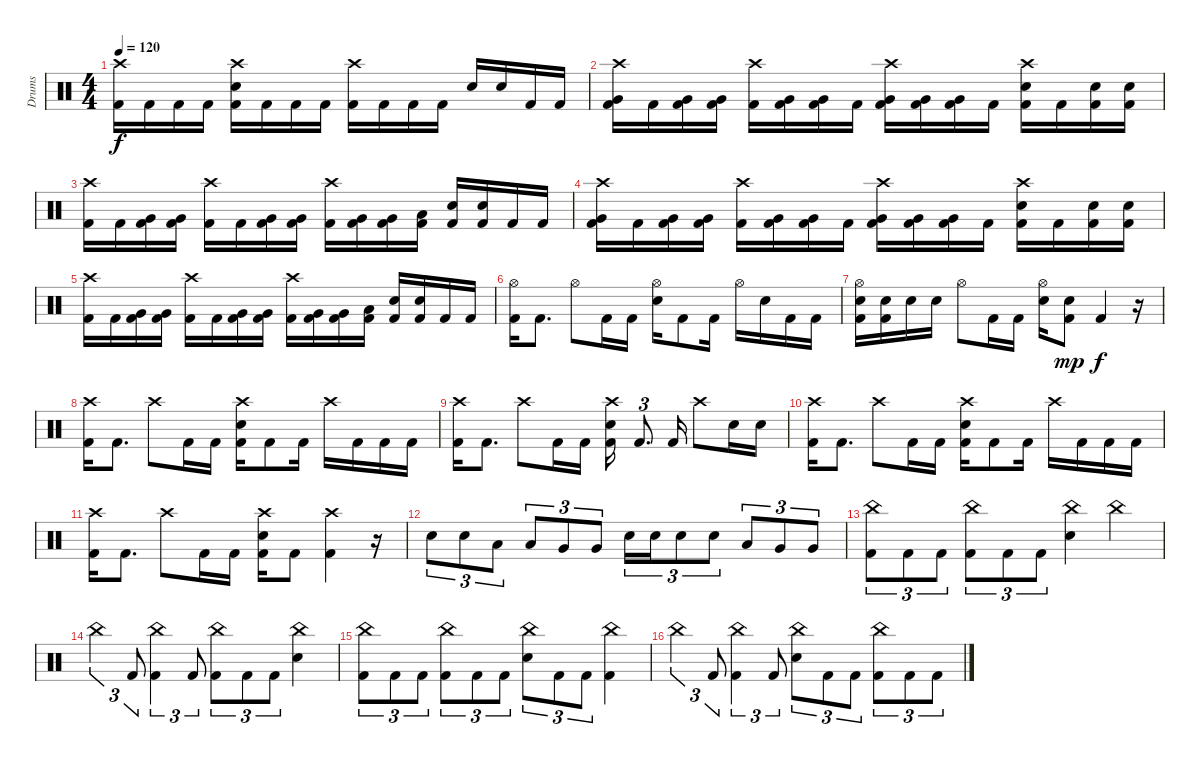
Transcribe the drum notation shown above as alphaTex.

\track ("Drums" "Drums") {instrument percussion}
\staff {score}
\articulation defaults
\ts (4 4)
\tempo 120
\clef neutral
\ks c
("Crash high (hit)" "Kick (hit) 2").16{dy f} "Kick (hit) 2".16 "Kick (hit) 2".16 "Kick (hit) 2".16 ("Crash high (hit)" "Electric Snare (hit)" "Kick (hit) 2").16 "Kick (hit) 2".16 "Kick (hit) 2".16 "Kick (hit) 2".16 ("Crash high (hit)" "Kick (hit) 2").16 "Kick (hit) 2".16 "Kick (hit) 2".16 "Kick (hit) 2".16 "Electric Snare (hit)".16 "Electric Snare (hit)".16 "Kick (hit) 2".16 "Kick (hit) 2".16 |
("Crash high (hit)" "Very Low Tom (hit)" "Kick (hit) 2").16 "Kick (hit) 2".16 ("Very Low Tom (hit)" "Kick (hit) 2").16 ("Very Low Tom (hit)" "Kick (hit) 2").16 ("Crash high (hit)" "Kick (hit) 2").16 ("Very Low Tom (hit)" "Kick (hit) 2").16 ("Very Low Tom (hit)" "Kick (hit) 2").16 "Kick (hit) 2".16 ("Crash high (hit)" "Very Low Tom (hit)" "Kick (hit) 2").16 ("Very Low Tom (hit)" "Kick (hit) 2").16 ("Very Low Tom (hit)" "Kick (hit) 2").16 "Kick (hit) 2".16 ("Crash high (hit)" "Electric Snare (hit)" "Kick (hit) 2").16 "Kick (hit) 2".16 ("Electric Snare (hit)" "Kick (hit) 2").16 ("Electric Snare (hit)" "Kick (hit) 2").16 |
("Crash high (hit)" "Kick (hit) 2").16 "Kick (hit) 2".16 ("Very Low Tom (hit)" "Kick (hit) 2").16 ("Very Low Tom (hit)" "Kick (hit) 2").16 ("Crash high (hit)" "Kick (hit) 2").16 "Kick (hit) 2".16 ("Very Low Tom (hit)" "Kick (hit) 2").16 ("Very Low Tom (hit)" "Kick (hit) 2").16 ("Crash high (hit)" "Kick (hit) 2").16 ("Very Low Tom (hit)" "Kick (hit) 2").16 ("Very Low Tom (hit)" "Kick (hit) 2").16 ("Low Tom (hit)" "Kick (hit) 2").16 ("Electric Snare (hit)" "Kick (hit) 2").16 ("Electric Snare (hit)" "Kick (hit) 2").16 "Kick (hit) 2".16 "Kick (hit) 2".16 |
("Crash high (hit)" "Very Low Tom (hit)" "Kick (hit) 2").16 "Kick (hit) 2".16 ("Very Low Tom (hit)" "Kick (hit) 2").16 ("Very Low Tom (hit)" "Kick (hit) 2").16 ("Crash high (hit)" "Kick (hit) 2").16 ("Very Low Tom (hit)" "Kick (hit) 2").16 ("Very Low Tom (hit)" "Kick (hit) 2").16 "Kick (hit) 2".16 ("Crash high (hit)" "Very Low Tom (hit)" "Kick (hit) 2").16 ("Very Low Tom (hit)" "Kick (hit) 2").16 ("Very Low Tom (hit)" "Kick (hit) 2").16 "Kick (hit) 2".16 ("Crash high (hit)" "Electric Snare (hit)" "Kick (hit) 2").16 "Kick (hit) 2".16 ("Electric Snare (hit)" "Kick (hit) 2").16 ("Electric Snare (hit)" "Kick (hit) 2").16 |
("Crash high (hit)" "Kick (hit) 2").16 "Kick (hit) 2".16 ("Very Low Tom (hit)" "Kick (hit) 2").16 ("Very Low Tom (hit)" "Kick (hit) 2").16 ("Crash high (hit)" "Kick (hit) 2").16 "Kick (hit) 2".16 ("Very Low Tom (hit)" "Kick (hit) 2").16 ("Very Low Tom (hit)" "Kick (hit) 2").16 ("Crash high (hit)" "Kick (hit) 2").16 ("Very Low Tom (hit)" "Kick (hit) 2").16 ("Very Low Tom (hit)" "Kick (hit) 2").16 ("Low Tom (hit)" "Kick (hit) 2").16 ("Electric Snare (hit)" "Kick (hit) 2").16 ("Electric Snare (hit)" "Kick (hit) 2").16 "Kick (hit) 2".16 "Kick (hit) 2".16 |
("Hi-Hat (open)" "Kick (hit) 2").16 "Kick (hit) 2".8{d} "Hi-Hat (open)".8 "Kick (hit) 2".16 "Kick (hit) 2".16 ("Hi-Hat (open)" "Electric Snare (hit)").16 "Kick (hit) 2".8 "Kick (hit) 2".16 "Hi-Hat (open)".16 "Electric Snare (hit)".16 "Kick (hit) 2".16 "Kick (hit) 2".16 |
("Hi-Hat (open)" "Electric Snare (hit)" "Kick (hit) 2").16 ("Electric Snare (hit)" "Kick (hit) 2").16 "Electric Snare (hit)".16 "Electric Snare (hit)".16 "Hi-Hat (open)".8 "Kick (hit) 2".16 "Kick (hit) 2".16 ("Hi-Hat (open)" "Electric Snare (hit)").16 ("Electric Snare (hit)" "Kick (hit) 2").8{dy mp} "Kick (hit) 2".4{dy f} r.16 |
("Crash high (hit)" "Kick (hit) 2").16 "Kick (hit) 2".8{d} "Crash high (hit)".8 "Kick (hit) 2".16 "Kick (hit) 2".16 ("Crash high (hit)" "Electric Snare (hit)" "Kick (hit) 2").16 "Kick (hit) 2".8 "Kick (hit) 2".16 "Crash high (hit)".16 "Kick (hit) 2".16 "Kick (hit) 2".16 "Kick (hit) 2".16 |
("Crash high (hit)" "Kick (hit) 2").16 "Kick (hit) 2".8{d} "Crash high (hit)".8 "Kick (hit) 2".16 "Kick (hit) 2".16 ("Crash high (hit)" "Electric Snare (hit)" "Kick (hit) 2").16 "Kick (hit) 2".8{d tu (3 2)} "Kick (hit) 2".16 "Crash high (hit)".8 "Electric Snare (hit)".16 "Electric Snare (hit)".16 |
("Crash high (hit)" "Kick (hit) 2").16 "Kick (hit) 2".8{d} "Crash high (hit)".8 "Kick (hit) 2".16 "Kick (hit) 2".16 ("Crash high (hit)" "Electric Snare (hit)" "Kick (hit) 2").16 "Kick (hit) 2".8 "Kick (hit) 2".16 "Crash high (hit)".16 "Kick (hit) 2".16 "Kick (hit) 2".16 "Kick (hit) 2".16 |
("Crash high (hit)" "Kick (hit) 2").16 "Kick (hit) 2".8{d} "Crash high (hit)".8 "Kick (hit) 2".16 "Kick (hit) 2".16 ("Crash high (hit)" "Electric Snare (hit)" "Kick (hit) 2").16 "Kick (hit) 2".8 ("Crash high (hit)" "Kick (hit) 2").4 r.16 |
"Electric Snare (hit)".8{tu (3 2)} "Electric Snare (hit)".8{tu (3 2)} "Low Tom (hit)".8{tu (3 2)} "Low Tom (hit)".8{tu (3 2)} "Very Low Tom (hit)".8{tu (3 2)} "Very Low Tom (hit)".8{tu (3 2)} "Electric Snare (hit)".16{tu (3 2)} "Electric Snare (hit)".16{tu (3 2)} "Electric Snare (hit)".8{tu (3 2)} "Electric Snare (hit)".8{tu (3 2)} "Low Tom (hit)".8{tu (3 2)} "Very Low Tom (hit)".8{tu (3 2)} "Very Low Tom (hit)".8{tu (3 2)} |
("China (hit)" "Kick (hit) 2").8{tu (3 2)} "Kick (hit) 2".8{tu (3 2)} "Kick (hit) 2".8{tu (3 2)} ("China (hit)" "Kick (hit) 2").8{tu (3 2)} "Kick (hit) 2".8{tu (3 2)} "Kick (hit) 2".8{tu (3 2)} ("China (hit)" "Electric Snare (hit)").4 "China (hit)".4 |
"China (hit)".4{tu (3 2)} "Kick (hit) 2".8{tu (3 2)} ("China (hit)" "Kick (hit) 2").4{tu (3 2)} "Kick (hit) 2".8{tu (3 2)} ("China (hit)" "Kick (hit) 2").8{tu (3 2)} "Kick (hit) 2".8{tu (3 2)} "Kick (hit) 2".8{tu (3 2)} ("China (hit)" "Electric Snare (hit)").4 |
("China (hit)" "Kick (hit) 2").8{tu (3 2)} "Kick (hit) 2".8{tu (3 2)} "Kick (hit) 2".8{tu (3 2)} ("China (hit)" "Kick (hit) 2").8{tu (3 2)} "Kick (hit) 2".8{tu (3 2)} "Kick (hit) 2".8{tu (3 2)} ("China (hit)" "Electric Snare (hit)").8{tu (3 2)} "Kick (hit) 2".8{tu (3 2)} "Kick (hit) 2".8{tu (3 2)} ("China (hit)" "Kick (hit) 2").4 |
"China (hit)".4{tu (3 2)} "Kick (hit) 2".8{tu (3 2)} ("China (hit)" "Kick (hit) 2").4{tu (3 2)} "Kick (hit) 2".8{tu (3 2)} ("China (hit)" "Electric Snare (hit)").8{tu (3 2)} "Kick (hit) 2".8{tu (3 2)} "Kick (hit) 2".8{tu (3 2)} ("China (hit)" "Kick (hit) 2").8{tu (3 2)} "Kick (hit) 2".8{tu (3 2)} "Kick (hit) 2".8{tu (3 2)}
